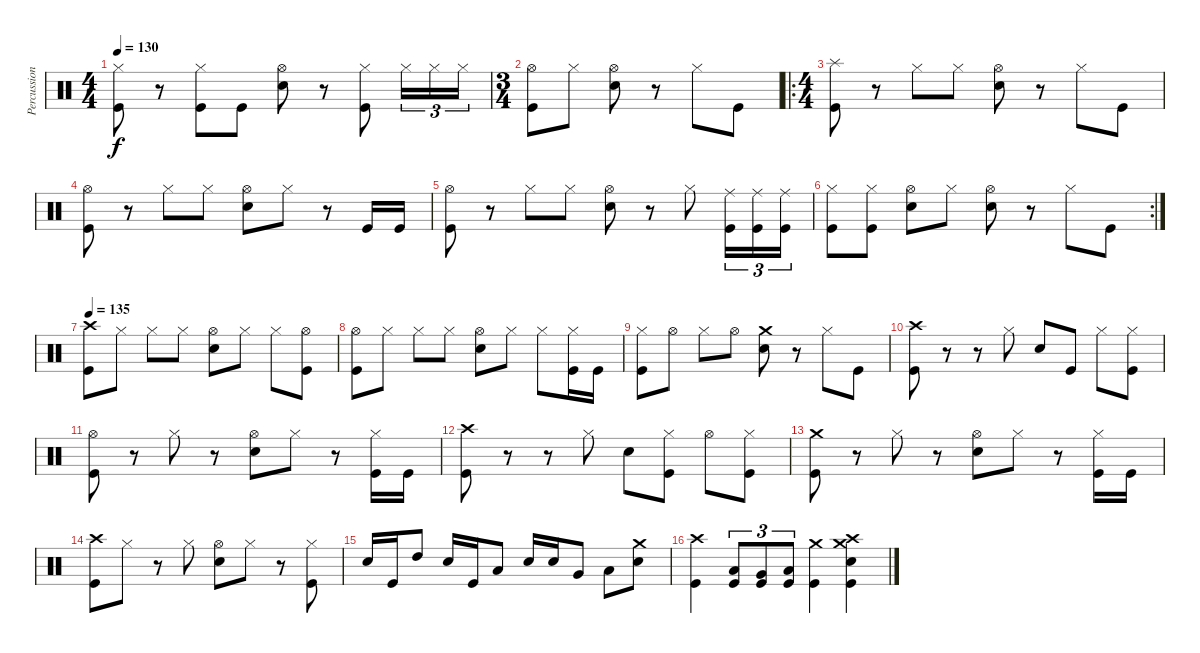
\track ("Percussion" "Percussion") {instrument percussion}
\staff {score}
\articulation defaults
\ts (4 4)
\tempo 130
\clef neutral
\ks c
("Hi-Hat (closed)" "Kick (hit)").8{dy f} r.8 ("Hi-Hat (closed)" "Kick (hit)").8 "Kick (hit)".8 ("Hi-Hat (open)" "Electric Snare (hit)").8 r.8 ("Hi-Hat (closed)" "Kick (hit)").8 "Hi-Hat (closed)".16{tu (3 2)} "Hi-Hat (closed)".16{tu (3 2)} "Hi-Hat (closed)".16{tu (3 2)} |
\ts (3 4)
("Hi-Hat (open)" "Kick (hit)").8 "Hi-Hat (closed)".8 ("Hi-Hat (open)" "Electric Snare (hit)").8 r.8 "Hi-Hat (closed)".8 "Kick (hit)".8 |
\ro
\ts (4 4)
("Splash (hit)" "Kick (hit)").8 r.8 "Hi-Hat (closed)".8 "Hi-Hat (closed)".8 ("Hi-Hat (open)" "Electric Snare (hit)").8 r.8 "Hi-Hat (closed)".8 "Kick (hit)".8 |
("Hi-Hat (open)" "Kick (hit)").8 r.8 "Hi-Hat (closed)".8 "Hi-Hat (closed)".8 ("Hi-Hat (open)" "Electric Snare (hit)").8 "Hi-Hat (closed)".8 r.8 "Kick (hit)".16 "Kick (hit)".16 |
("Hi-Hat (open)" "Kick (hit)").8 r.8 "Hi-Hat (closed)".8 "Hi-Hat (closed)".8 ("Hi-Hat (open)" "Electric Snare (hit)").8 r.8 "Hi-Hat (closed)".8 ("Ride (middle)" "Kick (hit)").16{tu (3 2)} ("Ride (middle)" "Kick (hit)").16{tu (3 2)} ("Ride (middle)" "Kick (hit)").16{tu (3 2)} |
\rc 2
("Hi-Hat (closed)" "Kick (hit)").8 ("Hi-Hat (closed)" "Kick (hit)").8 ("Hi-Hat (open)" "Electric Snare (hit)").8 "Hi-Hat (closed)".8 ("Hi-Hat (open)" "Electric Snare (hit)").8 r.8 "Hi-Hat (closed)".8 "Kick (hit)".8 |
\tempo 135
("Crash high (hit)" "Kick (hit)").8 "Hi-Hat (closed)".8 "Hi-Hat (closed)".8 "Hi-Hat (closed)".8 ("Hi-Hat (open)" "Electric Snare (hit)").8 "Hi-Hat (closed)".8 "Hi-Hat (closed)".8 ("Hi-Hat (open)" "Kick (hit)").8 |
("Hi-Hat (open)" "Kick (hit)").8 "Hi-Hat (closed)".8 "Hi-Hat (closed)".8 "Hi-Hat (closed)".8 ("Hi-Hat (open)" "Electric Snare (hit)").8 "Hi-Hat (closed)".8 "Hi-Hat (closed)".8 ("Hi-Hat (closed)" "Kick (hit)").16 "Kick (hit)".16 |
("Hi-Hat (closed)" "Kick (hit)").8 "Hi-Hat (open)".8 "Hi-Hat (closed)".8 "Hi-Hat (open)".8 ("Crash medium (hit)" "Electric Snare (hit)").8 r.8 "Hi-Hat (closed)".8 "Kick (hit)".8 |
("Crash high (hit)" "Kick (hit)").8 r.8 r.8 "Hi-Hat (closed)".8 "Electric Snare (hit)".8 "Kick (hit)".8 "Hi-Hat (closed)".8 ("Hi-Hat (closed)" "Kick (hit)").8 |
("Hi-Hat (open)" "Kick (hit)").8 r.8 "Hi-Hat (closed)".8 r.8 ("Hi-Hat (open)" "Electric Snare (hit)").8 "Hi-Hat (closed)".8 r.8 ("Hi-Hat (closed)" "Kick (hit)").16 "Kick (hit)".16 |
("Crash high (hit)" "Kick (hit)").8 r.8 r.8 "Hi-Hat (closed)".8 "Electric Snare (hit)".8 ("Hi-Hat (closed)" "Kick (hit)").8 "Hi-Hat (open)".8 ("Hi-Hat (closed)" "Kick (hit)").8 |
("Crash medium (hit)" "Kick (hit)").8 r.8 "Hi-Hat (closed)".8 r.8 ("Hi-Hat (open)" "Electric Snare (hit)").8 "Hi-Hat (closed)".8 r.8 ("Hi-Hat (closed)" "Kick (hit)").16 "Kick (hit)".16 |
("Crash high (hit)" "Kick (hit)").8 "Hi-Hat (closed)".8 r.8 "Hi-Hat (closed)".8 ("Hi-Hat (open)" "Electric Snare (hit)").8 "Hi-Hat (closed)".8 r.8 ("Hi-Hat (closed)" "Kick (hit)").8 |
"Electric Snare (hit)".16 "Kick (hit)".16 "High Tom (hit)".8 "Electric Snare (hit)".16 "Kick (hit)".16 "Low Tom (hit)".8 "Electric Snare (hit)".16 "Electric Snare (hit)".16 "Very Low Tom (hit)".8 "Low Floor Tom (hit)".8 ("Crash medium (hit)" "Electric Snare (hit)").8 |
("Crash high (hit)" "Kick (hit)").4 ("Low Tom (hit)" "Kick (hit)").8{tu (3 2)} ("Very Low Tom (hit)" "Kick (hit)").8{tu (3 2)} ("Low Floor Tom (hit)" "Kick (hit)").8{tu (3 2)} ("Crash medium (hit)" "Kick (hit)").4 ("Crash high (hit)" "Crash medium (hit)" "Electric Snare (hit)" "Kick (hit)").4
